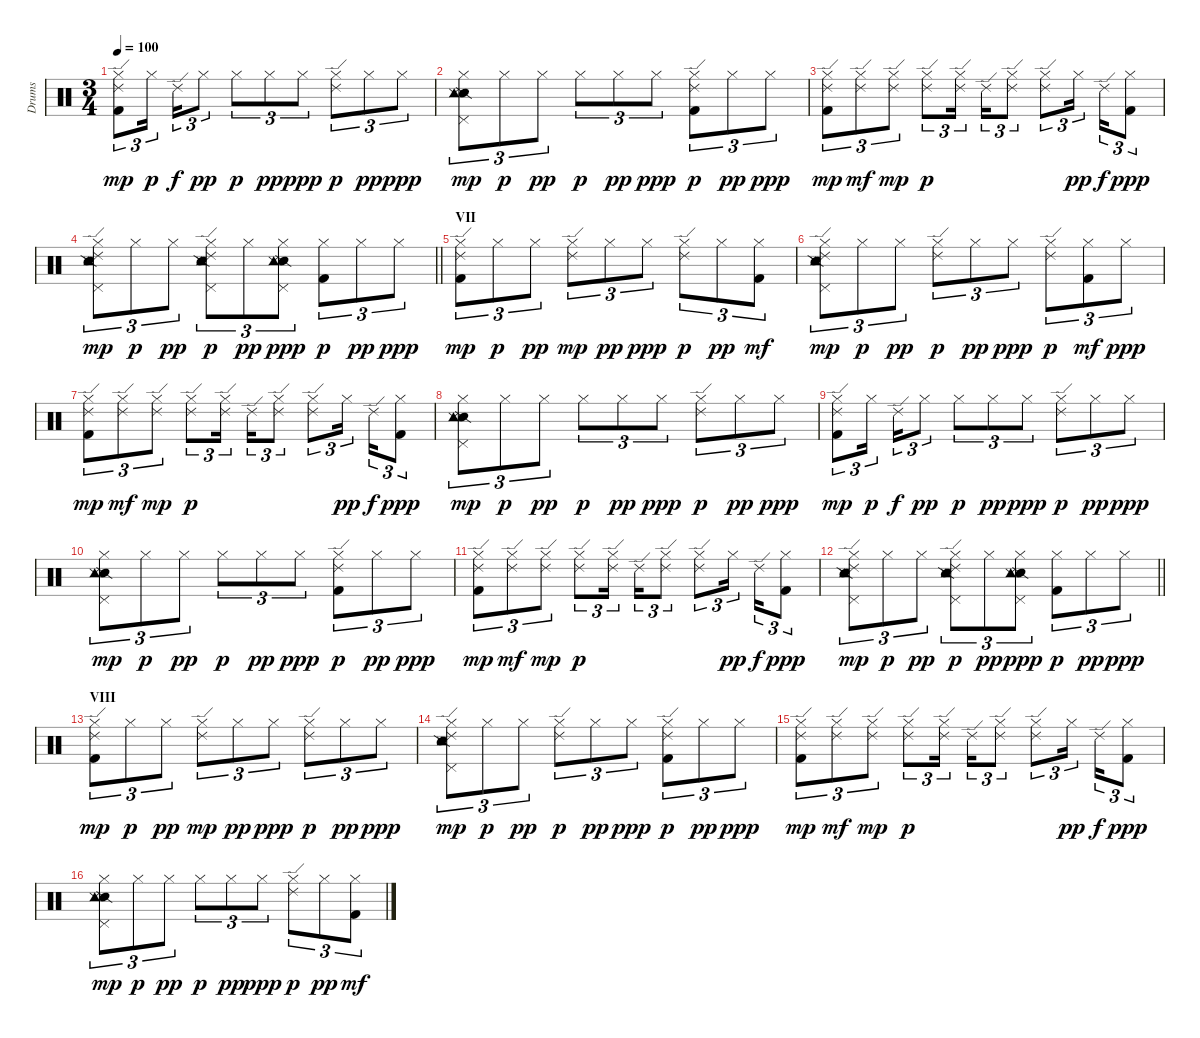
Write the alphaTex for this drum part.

\track ("Drums" "Drums") {instrument percussion}
\staff {score}
\articulation defaults
\ts (3 4)
\tempo 100
\clef neutral
\ks c
("Hi-Hat (closed)" "Ride (edge) 2" "Kick (hit) 2").8{tu (3 2) dy mp} "Hi-Hat (closed)".16{tu (3 2) dy p beam splitsecondary} "Ride (edge) 2".16{tu (3 2) dy f} "Hi-Hat (closed)".8{tu (3 2) dy pp} "Hi-Hat (closed)".8{tu (3 2) dy p} "Hi-Hat (closed)".8{tu (3 2) dy pp} "Hi-Hat (closed)".8{tu (3 2) dy ppp} ("Hi-Hat (closed)" "Ride (edge) 2").8{tu (3 2) dy p} "Hi-Hat (closed)".8{tu (3 2) dy pp} "Hi-Hat (closed)".8{tu (3 2) dy ppp} |
("Hi-Hat (closed)" "Pedal Hi-Hat (hit)" "Snare (side stick) 2" "Snare (side stick) 3" "Tambourine (hit)").8{tu (3 2) dy mp} "Hi-Hat (closed)".8{tu (3 2) dy p} "Hi-Hat (closed)".8{tu (3 2) dy pp} "Hi-Hat (closed)".8{tu (3 2) dy p} "Hi-Hat (closed)".8{tu (3 2) dy pp} "Hi-Hat (closed)".8{tu (3 2) dy ppp} ("Hi-Hat (closed)" "Ride (edge) 2" "Kick (hit) 2").8{tu (3 2) dy p} "Hi-Hat (closed)".8{tu (3 2) dy pp} "Hi-Hat (closed)".8{tu (3 2) dy ppp} |
("Hi-Hat (closed)" "Ride (edge) 2" "Kick (hit) 2").8{tu (3 2) dy mp} ("Hi-Hat (closed)" "Ride (edge) 2").8{tu (3 2) dy mf} ("Hi-Hat (closed)" "Ride (edge) 2").8{tu (3 2) dy mp} ("Hi-Hat (closed)" "Ride (edge) 2").8{tu (3 2) dy p} ("Hi-Hat (closed)" "Ride (edge) 2").16{tu (3 2) beam splitsecondary} "Ride (edge) 2".16{tu (3 2)} ("Hi-Hat (closed)" "Ride (edge) 2").8{tu (3 2)} ("Hi-Hat (closed)" "Ride (edge) 2").8{tu (3 2)} "Hi-Hat (closed)".16{tu (3 2) dy pp beam splitsecondary} "Ride (edge) 2".16{tu (3 2) dy f} ("Hi-Hat (closed)" "Kick (hit) 2").8{tu (3 2) dy ppp} |
\barLineRight lightlight
("Hi-Hat (closed)" "Ride (edge) 2" "Pedal Hi-Hat (hit)" "Snare (side stick) 2" "Snare (side stick) 3" "Tambourine (hit)").8{tu (3 2) dy mp} "Hi-Hat (closed)".8{tu (3 2) dy p} "Hi-Hat (closed)".8{tu (3 2) dy pp} ("Hi-Hat (closed)" "Ride (edge) 2" "Pedal Hi-Hat (hit)" "Snare (side stick) 2" "Snare (side stick) 3" "Tambourine (hit)").8{tu (3 2) dy p} "Hi-Hat (closed)".8{tu (3 2) dy pp} ("Hi-Hat (closed)" "Pedal Hi-Hat (hit)" "Snare (side stick) 2" "Snare (side stick) 3" "Tambourine (hit)").8{tu (3 2) dy ppp} ("Hi-Hat (closed)" "Kick (hit) 2").8{tu (3 2) dy p} "Hi-Hat (closed)".8{tu (3 2) dy pp} "Hi-Hat (closed)".8{tu (3 2) dy ppp} |
\section ("" "VII")
("Hi-Hat (closed)" "Ride (edge) 2" "Kick (hit) 2").8{tu (3 2) dy mp} "Hi-Hat (closed)".8{tu (3 2) dy p} "Hi-Hat (closed)".8{tu (3 2) dy pp} ("Hi-Hat (closed)" "Ride (edge) 2").8{tu (3 2) dy mp} "Hi-Hat (closed)".8{tu (3 2) dy pp} "Hi-Hat (closed)".8{tu (3 2) dy ppp} ("Hi-Hat (closed)" "Ride (edge) 2").8{tu (3 2) dy p} "Hi-Hat (closed)".8{tu (3 2) dy pp} ("Hi-Hat (closed)" "Kick (hit) 2").8{tu (3 2) dy mf} |
("Hi-Hat (closed)" "Ride (edge) 2" "Pedal Hi-Hat (hit)" "Snare (side stick) 2" "Snare (side stick) 3" "Tambourine (hit)").8{tu (3 2) dy mp} "Hi-Hat (closed)".8{tu (3 2) dy p} "Hi-Hat (closed)".8{tu (3 2) dy pp} ("Hi-Hat (closed)" "Ride (edge) 2").8{tu (3 2) dy p} "Hi-Hat (closed)".8{tu (3 2) dy pp} "Hi-Hat (closed)".8{tu (3 2) dy ppp} ("Hi-Hat (closed)" "Ride (edge) 2").8{tu (3 2) dy p} ("Hi-Hat (closed)" "Kick (hit) 2").8{tu (3 2) dy mf} "Hi-Hat (closed)".8{tu (3 2) dy ppp} |
("Hi-Hat (closed)" "Ride (edge) 2" "Kick (hit) 2").8{tu (3 2) dy mp} ("Hi-Hat (closed)" "Ride (edge) 2").8{tu (3 2) dy mf} ("Hi-Hat (closed)" "Ride (edge) 2").8{tu (3 2) dy mp} ("Hi-Hat (closed)" "Ride (edge) 2").8{tu (3 2) dy p} ("Hi-Hat (closed)" "Ride (edge) 2").16{tu (3 2) beam splitsecondary} "Ride (edge) 2".16{tu (3 2)} ("Hi-Hat (closed)" "Ride (edge) 2").8{tu (3 2)} ("Hi-Hat (closed)" "Ride (edge) 2").8{tu (3 2)} "Hi-Hat (closed)".16{tu (3 2) dy pp beam splitsecondary} "Ride (edge) 2".16{tu (3 2) dy f} ("Hi-Hat (closed)" "Kick (hit) 2").8{tu (3 2) dy ppp} |
("Hi-Hat (closed)" "Pedal Hi-Hat (hit)" "Snare (side stick) 2" "Snare (side stick) 3" "Tambourine (hit)").8{tu (3 2) dy mp} "Hi-Hat (closed)".8{tu (3 2) dy p} "Hi-Hat (closed)".8{tu (3 2) dy pp} "Hi-Hat (closed)".8{tu (3 2) dy p} "Hi-Hat (closed)".8{tu (3 2) dy pp} "Hi-Hat (closed)".8{tu (3 2) dy ppp} ("Hi-Hat (closed)" "Ride (edge) 2").8{tu (3 2) dy p} "Hi-Hat (closed)".8{tu (3 2) dy pp} "Hi-Hat (closed)".8{tu (3 2) dy ppp} |
("Hi-Hat (closed)" "Ride (edge) 2" "Kick (hit) 2").8{tu (3 2) dy mp} "Hi-Hat (closed)".16{tu (3 2) dy p beam splitsecondary} "Ride (edge) 2".16{tu (3 2) dy f} "Hi-Hat (closed)".8{tu (3 2) dy pp} "Hi-Hat (closed)".8{tu (3 2) dy p} "Hi-Hat (closed)".8{tu (3 2) dy pp} "Hi-Hat (closed)".8{tu (3 2) dy ppp} ("Hi-Hat (closed)" "Ride (edge) 2").8{tu (3 2) dy p} "Hi-Hat (closed)".8{tu (3 2) dy pp} "Hi-Hat (closed)".8{tu (3 2) dy ppp} |
("Hi-Hat (closed)" "Pedal Hi-Hat (hit)" "Snare (side stick) 2" "Snare (side stick) 3" "Tambourine (hit)").8{tu (3 2) dy mp} "Hi-Hat (closed)".8{tu (3 2) dy p} "Hi-Hat (closed)".8{tu (3 2) dy pp} "Hi-Hat (closed)".8{tu (3 2) dy p} "Hi-Hat (closed)".8{tu (3 2) dy pp} "Hi-Hat (closed)".8{tu (3 2) dy ppp} ("Hi-Hat (closed)" "Ride (edge) 2" "Kick (hit) 2").8{tu (3 2) dy p} "Hi-Hat (closed)".8{tu (3 2) dy pp} "Hi-Hat (closed)".8{tu (3 2) dy ppp} |
("Hi-Hat (closed)" "Ride (edge) 2" "Kick (hit) 2").8{tu (3 2) dy mp} ("Hi-Hat (closed)" "Ride (edge) 2").8{tu (3 2) dy mf} ("Hi-Hat (closed)" "Ride (edge) 2").8{tu (3 2) dy mp} ("Hi-Hat (closed)" "Ride (edge) 2").8{tu (3 2) dy p} ("Hi-Hat (closed)" "Ride (edge) 2").16{tu (3 2) beam splitsecondary} "Ride (edge) 2".16{tu (3 2)} ("Hi-Hat (closed)" "Ride (edge) 2").8{tu (3 2)} ("Hi-Hat (closed)" "Ride (edge) 2").8{tu (3 2)} "Hi-Hat (closed)".16{tu (3 2) dy pp beam splitsecondary} "Ride (edge) 2".16{tu (3 2) dy f} ("Hi-Hat (closed)" "Kick (hit) 2").8{tu (3 2) dy ppp} |
\barLineRight lightlight
("Hi-Hat (closed)" "Ride (edge) 2" "Pedal Hi-Hat (hit)" "Snare (side stick) 2" "Snare (side stick) 3" "Tambourine (hit)").8{tu (3 2) dy mp} "Hi-Hat (closed)".8{tu (3 2) dy p} "Hi-Hat (closed)".8{tu (3 2) dy pp} ("Hi-Hat (closed)" "Ride (edge) 2" "Pedal Hi-Hat (hit)" "Snare (side stick) 2" "Snare (side stick) 3" "Tambourine (hit)").8{tu (3 2) dy p} "Hi-Hat (closed)".8{tu (3 2) dy pp} ("Hi-Hat (closed)" "Pedal Hi-Hat (hit)" "Snare (side stick) 2" "Snare (side stick) 3" "Tambourine (hit)").8{tu (3 2) dy ppp} ("Hi-Hat (closed)" "Kick (hit) 2").8{tu (3 2) dy p} "Hi-Hat (closed)".8{tu (3 2) dy pp} "Hi-Hat (closed)".8{tu (3 2) dy ppp} |
\section ("" "VIII")
("Hi-Hat (closed)" "Ride (edge) 2" "Kick (hit) 2").8{tu (3 2) dy mp} "Hi-Hat (closed)".8{tu (3 2) dy p} "Hi-Hat (closed)".8{tu (3 2) dy pp} ("Hi-Hat (closed)" "Ride (edge) 2").8{tu (3 2) dy mp} "Hi-Hat (closed)".8{tu (3 2) dy pp} "Hi-Hat (closed)".8{tu (3 2) dy ppp} ("Hi-Hat (closed)" "Ride (edge) 2").8{tu (3 2) dy p} "Hi-Hat (closed)".8{tu (3 2) dy pp} "Hi-Hat (closed)".8{tu (3 2) dy ppp} |
("Hi-Hat (closed)" "Ride (edge) 2" "Pedal Hi-Hat (hit)" "Snare (side stick) 2" "Snare (side stick) 3" "Tambourine (hit)").8{tu (3 2) dy mp} "Hi-Hat (closed)".8{tu (3 2) dy p} "Hi-Hat (closed)".8{tu (3 2) dy pp} ("Hi-Hat (closed)" "Ride (edge) 2").8{tu (3 2) dy p} "Hi-Hat (closed)".8{tu (3 2) dy pp} "Hi-Hat (closed)".8{tu (3 2) dy ppp} ("Hi-Hat (closed)" "Ride (edge) 2" "Kick (hit) 2").8{tu (3 2) dy p} "Hi-Hat (closed)".8{tu (3 2) dy pp} "Hi-Hat (closed)".8{tu (3 2) dy ppp} |
("Hi-Hat (closed)" "Ride (edge) 2" "Kick (hit) 2").8{tu (3 2) dy mp} ("Hi-Hat (closed)" "Ride (edge) 2").8{tu (3 2) dy mf} ("Hi-Hat (closed)" "Ride (edge) 2").8{tu (3 2) dy mp} ("Hi-Hat (closed)" "Ride (edge) 2").8{tu (3 2) dy p} ("Hi-Hat (closed)" "Ride (edge) 2").16{tu (3 2) beam splitsecondary} "Ride (edge) 2".16{tu (3 2)} ("Hi-Hat (closed)" "Ride (edge) 2").8{tu (3 2)} ("Hi-Hat (closed)" "Ride (edge) 2").8{tu (3 2)} "Hi-Hat (closed)".16{tu (3 2) dy pp beam splitsecondary} "Ride (edge) 2".16{tu (3 2) dy f} ("Hi-Hat (closed)" "Kick (hit) 2").8{tu (3 2) dy ppp} |
("Hi-Hat (closed)" "Pedal Hi-Hat (hit)" "Snare (side stick) 2" "Snare (side stick) 3" "Tambourine (hit)").8{tu (3 2) dy mp} "Hi-Hat (closed)".8{tu (3 2) dy p} "Hi-Hat (closed)".8{tu (3 2) dy pp} "Hi-Hat (closed)".8{tu (3 2) dy p} "Hi-Hat (closed)".8{tu (3 2) dy pp} "Hi-Hat (closed)".8{tu (3 2) dy ppp} ("Hi-Hat (closed)" "Ride (edge) 2").8{tu (3 2) dy p} "Hi-Hat (closed)".8{tu (3 2) dy pp} ("Hi-Hat (closed)" "Kick (hit) 2").8{tu (3 2) dy mf}
